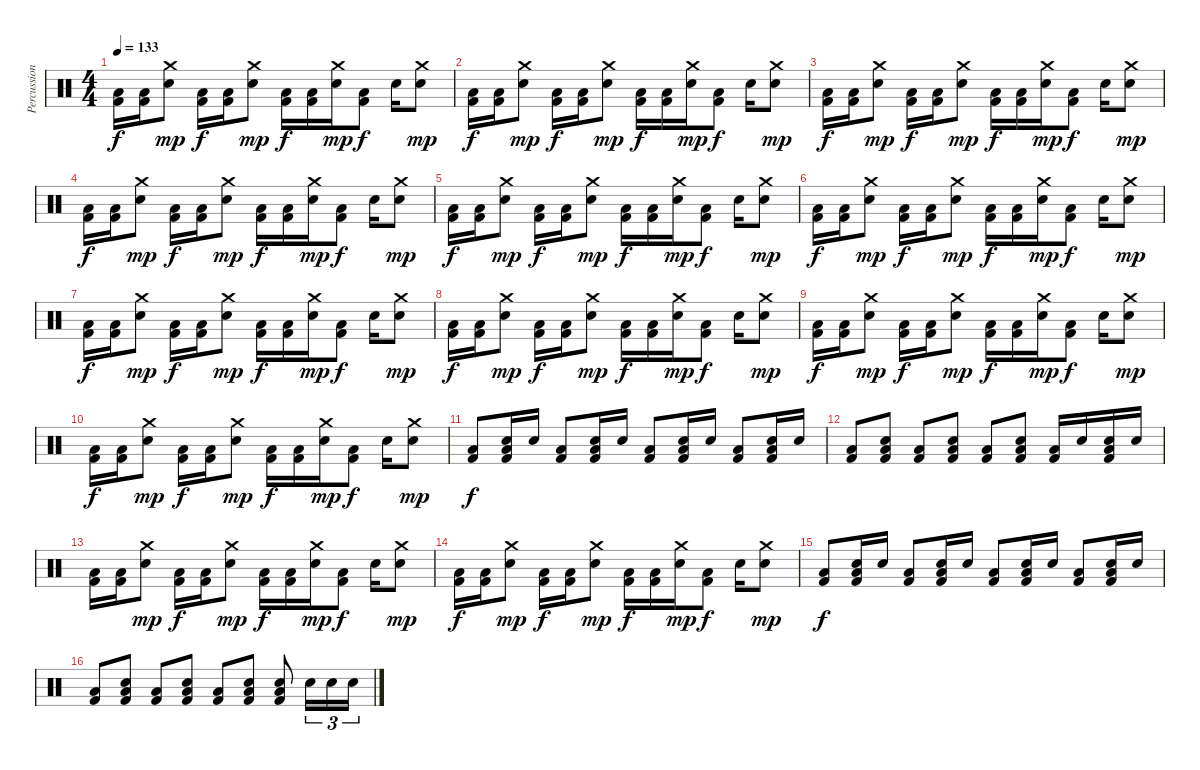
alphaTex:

\track ("Percussions" "Percussion") {instrument percussion}
\staff {score}
\articulation defaults
\ts (4 4)
\tempo 133
\clef neutral
\ks c
("Kick (hit) 2" "Low Floor Tom (hit)").16{dy f} ("Kick (hit) 2" "Low Floor Tom (hit)").16 ("Electric Snare (hit)" "Crash medium (hit)").8{dy mp} ("Kick (hit) 2" "Low Floor Tom (hit)").16{dy f} ("Kick (hit) 2" "Low Floor Tom (hit)").16 ("Electric Snare (hit)" "Crash medium (hit)").8{dy mp} ("Kick (hit) 2" "Low Floor Tom (hit)").16{dy f} ("Kick (hit) 2" "Low Floor Tom (hit)").16 ("Electric Snare (hit)" "Crash medium (hit)").16{dy mp} ("Kick (hit) 2" "Low Floor Tom (hit)").8{dy f} "Electric Snare (hit)".16 ("Electric Snare (hit)" "Crash medium (hit)").8{dy mp} |
("Kick (hit) 2" "Low Floor Tom (hit)").16{dy f} ("Kick (hit) 2" "Low Floor Tom (hit)").16 ("Electric Snare (hit)" "Crash medium (hit)").8{dy mp} ("Kick (hit) 2" "Low Floor Tom (hit)").16{dy f} ("Kick (hit) 2" "Low Floor Tom (hit)").16 ("Electric Snare (hit)" "Crash medium (hit)").8{dy mp} ("Kick (hit) 2" "Low Floor Tom (hit)").16{dy f} ("Kick (hit) 2" "Low Floor Tom (hit)").16 ("Electric Snare (hit)" "Crash medium (hit)").16{dy mp} ("Kick (hit) 2" "Low Floor Tom (hit)").8{dy f} "Electric Snare (hit)".16 ("Electric Snare (hit)" "Crash medium (hit)").8{dy mp} |
("Kick (hit) 2" "Low Floor Tom (hit)").16{dy f} ("Kick (hit) 2" "Low Floor Tom (hit)").16 ("Electric Snare (hit)" "Crash medium (hit)").8{dy mp} ("Kick (hit) 2" "Low Floor Tom (hit)").16{dy f} ("Kick (hit) 2" "Low Floor Tom (hit)").16 ("Electric Snare (hit)" "Crash medium (hit)").8{dy mp} ("Kick (hit) 2" "Low Floor Tom (hit)").16{dy f} ("Kick (hit) 2" "Low Floor Tom (hit)").16 ("Electric Snare (hit)" "Crash medium (hit)").16{dy mp} ("Kick (hit) 2" "Low Floor Tom (hit)").8{dy f} "Electric Snare (hit)".16 ("Electric Snare (hit)" "Crash medium (hit)").8{dy mp} |
("Kick (hit) 2" "Low Floor Tom (hit)").16{dy f} ("Kick (hit) 2" "Low Floor Tom (hit)").16 ("Electric Snare (hit)" "Crash medium (hit)").8{dy mp} ("Kick (hit) 2" "Low Floor Tom (hit)").16{dy f} ("Kick (hit) 2" "Low Floor Tom (hit)").16 ("Electric Snare (hit)" "Crash medium (hit)").8{dy mp} ("Kick (hit) 2" "Low Floor Tom (hit)").16{dy f} ("Kick (hit) 2" "Low Floor Tom (hit)").16 ("Electric Snare (hit)" "Crash medium (hit)").16{dy mp} ("Kick (hit) 2" "Low Floor Tom (hit)").8{dy f} "Electric Snare (hit)".16 ("Electric Snare (hit)" "Crash medium (hit)").8{dy mp} |
("Kick (hit) 2" "Low Floor Tom (hit)").16{dy f} ("Kick (hit) 2" "Low Floor Tom (hit)").16 ("Electric Snare (hit)" "Crash medium (hit)").8{dy mp} ("Kick (hit) 2" "Low Floor Tom (hit)").16{dy f} ("Kick (hit) 2" "Low Floor Tom (hit)").16 ("Electric Snare (hit)" "Crash medium (hit)").8{dy mp} ("Kick (hit) 2" "Low Floor Tom (hit)").16{dy f} ("Kick (hit) 2" "Low Floor Tom (hit)").16 ("Electric Snare (hit)" "Crash medium (hit)").16{dy mp} ("Kick (hit) 2" "Low Floor Tom (hit)").8{dy f} "Electric Snare (hit)".16 ("Electric Snare (hit)" "Crash medium (hit)").8{dy mp} |
("Kick (hit) 2" "Low Floor Tom (hit)").16{dy f} ("Kick (hit) 2" "Low Floor Tom (hit)").16 ("Electric Snare (hit)" "Crash medium (hit)").8{dy mp} ("Kick (hit) 2" "Low Floor Tom (hit)").16{dy f} ("Kick (hit) 2" "Low Floor Tom (hit)").16 ("Electric Snare (hit)" "Crash medium (hit)").8{dy mp} ("Kick (hit) 2" "Low Floor Tom (hit)").16{dy f} ("Kick (hit) 2" "Low Floor Tom (hit)").16 ("Electric Snare (hit)" "Crash medium (hit)").16{dy mp} ("Kick (hit) 2" "Low Floor Tom (hit)").8{dy f} "Electric Snare (hit)".16 ("Electric Snare (hit)" "Crash medium (hit)").8{dy mp} |
("Kick (hit) 2" "Low Floor Tom (hit)").16{dy f} ("Kick (hit) 2" "Low Floor Tom (hit)").16 ("Electric Snare (hit)" "Crash medium (hit)").8{dy mp} ("Kick (hit) 2" "Low Floor Tom (hit)").16{dy f} ("Kick (hit) 2" "Low Floor Tom (hit)").16 ("Electric Snare (hit)" "Crash medium (hit)").8{dy mp} ("Kick (hit) 2" "Low Floor Tom (hit)").16{dy f} ("Kick (hit) 2" "Low Floor Tom (hit)").16 ("Electric Snare (hit)" "Crash medium (hit)").16{dy mp} ("Kick (hit) 2" "Low Floor Tom (hit)").8{dy f} "Electric Snare (hit)".16 ("Electric Snare (hit)" "Crash medium (hit)").8{dy mp} |
("Kick (hit) 2" "Low Floor Tom (hit)").16{dy f} ("Kick (hit) 2" "Low Floor Tom (hit)").16 ("Electric Snare (hit)" "Crash medium (hit)").8{dy mp} ("Kick (hit) 2" "Low Floor Tom (hit)").16{dy f} ("Kick (hit) 2" "Low Floor Tom (hit)").16 ("Electric Snare (hit)" "Crash medium (hit)").8{dy mp} ("Kick (hit) 2" "Low Floor Tom (hit)").16{dy f} ("Kick (hit) 2" "Low Floor Tom (hit)").16 ("Electric Snare (hit)" "Crash medium (hit)").16{dy mp} ("Kick (hit) 2" "Low Floor Tom (hit)").8{dy f} "Electric Snare (hit)".16 ("Electric Snare (hit)" "Crash medium (hit)").8{dy mp} |
("Kick (hit) 2" "Low Floor Tom (hit)").16{dy f} ("Kick (hit) 2" "Low Floor Tom (hit)").16 ("Electric Snare (hit)" "Crash medium (hit)").8{dy mp} ("Kick (hit) 2" "Low Floor Tom (hit)").16{dy f} ("Kick (hit) 2" "Low Floor Tom (hit)").16 ("Electric Snare (hit)" "Crash medium (hit)").8{dy mp} ("Kick (hit) 2" "Low Floor Tom (hit)").16{dy f} ("Kick (hit) 2" "Low Floor Tom (hit)").16 ("Electric Snare (hit)" "Crash medium (hit)").16{dy mp} ("Kick (hit) 2" "Low Floor Tom (hit)").8{dy f} "Electric Snare (hit)".16 ("Electric Snare (hit)" "Crash medium (hit)").8{dy mp} |
("Kick (hit) 2" "Low Floor Tom (hit)").16{dy f} ("Kick (hit) 2" "Low Floor Tom (hit)").16 ("Electric Snare (hit)" "Crash medium (hit)").8{dy mp} ("Kick (hit) 2" "Low Floor Tom (hit)").16{dy f} ("Kick (hit) 2" "Low Floor Tom (hit)").16 ("Electric Snare (hit)" "Crash medium (hit)").8{dy mp} ("Kick (hit) 2" "Low Floor Tom (hit)").16{dy f} ("Kick (hit) 2" "Low Floor Tom (hit)").16 ("Electric Snare (hit)" "Crash medium (hit)").16{dy mp} ("Kick (hit) 2" "Low Floor Tom (hit)").8{dy f} "Electric Snare (hit)".16 ("Electric Snare (hit)" "Crash medium (hit)").8{dy mp} |
("Kick (hit) 2" "Low Floor Tom (hit)").8{dy f} ("Kick (hit) 2" "Low Floor Tom (hit)" "Electric Snare (hit)").16 "Electric Snare (hit)".16 ("Kick (hit) 2" "Low Floor Tom (hit)").8 ("Kick (hit) 2" "Low Floor Tom (hit)" "Electric Snare (hit)").16 "Electric Snare (hit)".16 ("Kick (hit) 2" "Low Floor Tom (hit)").8 ("Kick (hit) 2" "Low Floor Tom (hit)" "Electric Snare (hit)").16 "Electric Snare (hit)".16 ("Kick (hit) 2" "Low Floor Tom (hit)").8 ("Kick (hit) 2" "Low Floor Tom (hit)" "Electric Snare (hit)").16 "Electric Snare (hit)".16 |
("Kick (hit) 2" "Low Floor Tom (hit)").8 ("Kick (hit) 2" "Low Floor Tom (hit)" "Electric Snare (hit)").8 ("Kick (hit) 2" "Low Floor Tom (hit)").8 ("Kick (hit) 2" "Low Floor Tom (hit)" "Electric Snare (hit)").8 ("Kick (hit) 2" "Low Floor Tom (hit)").8 ("Kick (hit) 2" "Low Floor Tom (hit)" "Electric Snare (hit)").8 ("Kick (hit) 2" "Low Floor Tom (hit)").16 "Electric Snare (hit)".16 ("Kick (hit) 2" "Low Floor Tom (hit)" "Electric Snare (hit)").16 "Electric Snare (hit)".16 |
("Kick (hit) 2" "Low Floor Tom (hit)").16 ("Kick (hit) 2" "Low Floor Tom (hit)").16 ("Electric Snare (hit)" "Crash medium (hit)").8{dy mp} ("Kick (hit) 2" "Low Floor Tom (hit)").16{dy f} ("Kick (hit) 2" "Low Floor Tom (hit)").16 ("Electric Snare (hit)" "Crash medium (hit)").8{dy mp} ("Kick (hit) 2" "Low Floor Tom (hit)").16{dy f} ("Kick (hit) 2" "Low Floor Tom (hit)").16 ("Electric Snare (hit)" "Crash medium (hit)").16{dy mp} ("Kick (hit) 2" "Low Floor Tom (hit)").8{dy f} "Electric Snare (hit)".16 ("Electric Snare (hit)" "Crash medium (hit)").8{dy mp} |
("Kick (hit) 2" "Low Floor Tom (hit)").16{dy f} ("Kick (hit) 2" "Low Floor Tom (hit)").16 ("Electric Snare (hit)" "Crash medium (hit)").8{dy mp} ("Kick (hit) 2" "Low Floor Tom (hit)").16{dy f} ("Kick (hit) 2" "Low Floor Tom (hit)").16 ("Electric Snare (hit)" "Crash medium (hit)").8{dy mp} ("Kick (hit) 2" "Low Floor Tom (hit)").16{dy f} ("Kick (hit) 2" "Low Floor Tom (hit)").16 ("Electric Snare (hit)" "Crash medium (hit)").16{dy mp} ("Kick (hit) 2" "Low Floor Tom (hit)").8{dy f} "Electric Snare (hit)".16 ("Electric Snare (hit)" "Crash medium (hit)").8{dy mp} |
("Kick (hit) 2" "Low Floor Tom (hit)").8{dy f} ("Kick (hit) 2" "Low Floor Tom (hit)" "Electric Snare (hit)").16 "Electric Snare (hit)".16 ("Kick (hit) 2" "Low Floor Tom (hit)").8 ("Kick (hit) 2" "Low Floor Tom (hit)" "Electric Snare (hit)").16 "Electric Snare (hit)".16 ("Kick (hit) 2" "Low Floor Tom (hit)").8 ("Kick (hit) 2" "Low Floor Tom (hit)" "Electric Snare (hit)").16 "Electric Snare (hit)".16 ("Kick (hit) 2" "Low Floor Tom (hit)").8 ("Kick (hit) 2" "Low Floor Tom (hit)" "Electric Snare (hit)").16 "Electric Snare (hit)".16 |
("Kick (hit) 2" "Low Floor Tom (hit)").8 ("Kick (hit) 2" "Low Floor Tom (hit)" "Electric Snare (hit)").8 ("Kick (hit) 2" "Low Floor Tom (hit)").8 ("Kick (hit) 2" "Low Floor Tom (hit)" "Electric Snare (hit)").8 ("Kick (hit) 2" "Low Floor Tom (hit)").8 ("Kick (hit) 2" "Low Floor Tom (hit)" "Electric Snare (hit)").8 ("Kick (hit) 2" "Low Floor Tom (hit)" "Electric Snare (hit)").8 "Electric Snare (hit)".16{tu (3 2)} "Electric Snare (hit)".16{tu (3 2)} "Electric Snare (hit)".16{tu (3 2)}
